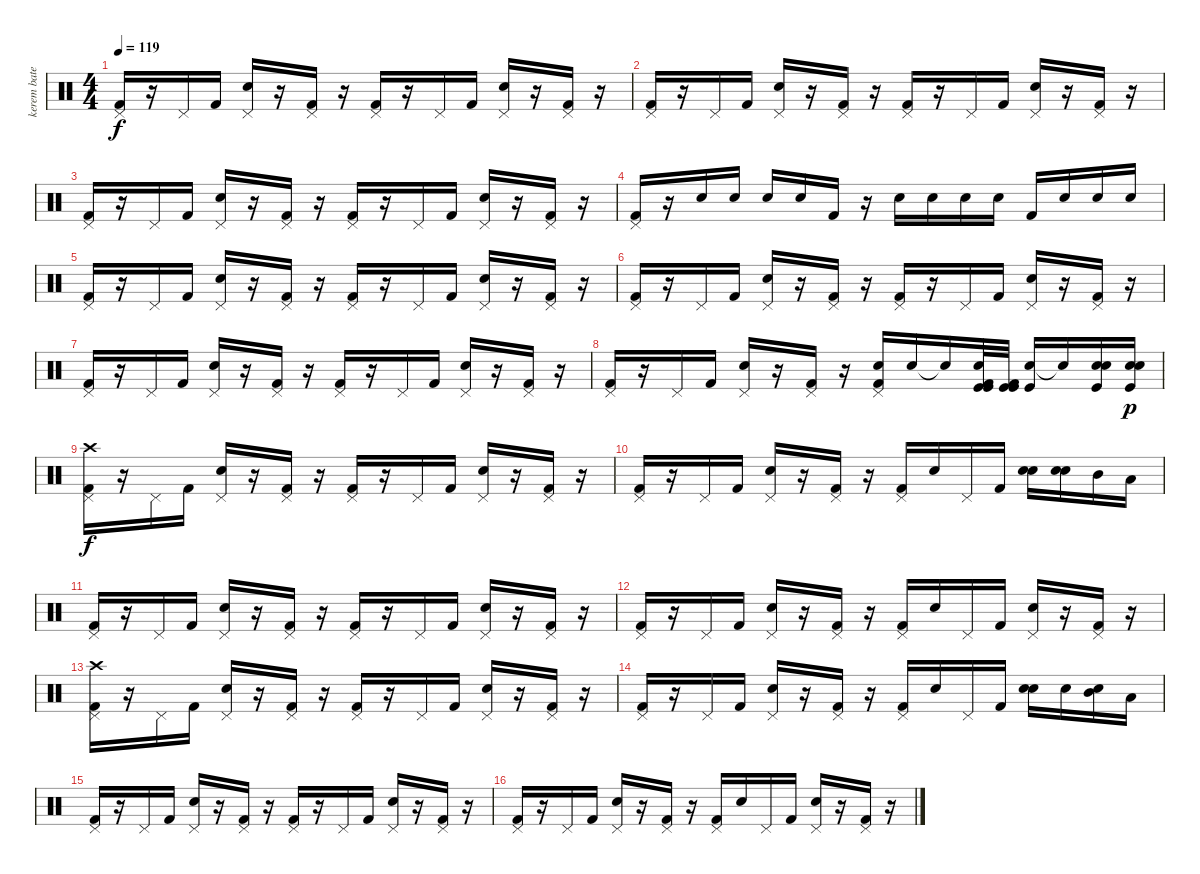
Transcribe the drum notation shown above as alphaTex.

\track ("kerem bateri" "kerem bate") {instrument percussion}
\staff {score}
\articulation defaults
\ts (4 4)
\tempo 119
\clef neutral
\ks c
("Kick (hit) 2" "Pedal Hi-Hat (hit)").16{dy f} r.16 "Pedal Hi-Hat (hit)".16 "Kick (hit) 2".16 ("Electric Snare (hit)" "Pedal Hi-Hat (hit)").16 r.16 ("Kick (hit) 2" "Pedal Hi-Hat (hit)").16 r.16 ("Kick (hit) 2" "Pedal Hi-Hat (hit)").16 r.16 "Pedal Hi-Hat (hit)".16 "Kick (hit) 2".16 ("Electric Snare (hit)" "Pedal Hi-Hat (hit)").16 r.16 ("Kick (hit) 2" "Pedal Hi-Hat (hit)").16 r.16 |
("Kick (hit) 2" "Pedal Hi-Hat (hit)").16 r.16 "Pedal Hi-Hat (hit)".16 "Kick (hit) 2".16 ("Electric Snare (hit)" "Pedal Hi-Hat (hit)").16 r.16 ("Kick (hit) 2" "Pedal Hi-Hat (hit)").16 r.16 ("Kick (hit) 2" "Pedal Hi-Hat (hit)").16 r.16 "Pedal Hi-Hat (hit)".16 "Kick (hit) 2".16 ("Electric Snare (hit)" "Pedal Hi-Hat (hit)").16 r.16 ("Kick (hit) 2" "Pedal Hi-Hat (hit)").16 r.16 |
("Kick (hit) 2" "Pedal Hi-Hat (hit)").16 r.16 "Pedal Hi-Hat (hit)".16 "Kick (hit) 2".16 ("Electric Snare (hit)" "Pedal Hi-Hat (hit)").16 r.16 ("Kick (hit) 2" "Pedal Hi-Hat (hit)").16 r.16 ("Kick (hit) 2" "Pedal Hi-Hat (hit)").16 r.16 "Pedal Hi-Hat (hit)".16 "Kick (hit) 2".16 ("Electric Snare (hit)" "Pedal Hi-Hat (hit)").16 r.16 ("Kick (hit) 2" "Pedal Hi-Hat (hit)").16 r.16 |
("Kick (hit) 2" "Pedal Hi-Hat (hit)").16 r.16 "Electric Snare (hit)".16 "Electric Snare (hit)".16 "Electric Snare (hit)".16 "Electric Snare (hit)".16 "Kick (hit) 2".16 r.16 "Electric Snare (hit)".16 "Electric Snare (hit)".16 "Electric Snare (hit)".16 "Electric Snare (hit)".16 "Kick (hit) 2".16 "Electric Snare (hit)".16 "Electric Snare (hit)".16 "Electric Snare (hit)".16 |
("Kick (hit) 2" "Pedal Hi-Hat (hit)").16 r.16 "Pedal Hi-Hat (hit)".16 "Kick (hit) 2".16 ("Electric Snare (hit)" "Pedal Hi-Hat (hit)").16 r.16 ("Kick (hit) 2" "Pedal Hi-Hat (hit)").16 r.16 ("Kick (hit) 2" "Pedal Hi-Hat (hit)").16 r.16 "Pedal Hi-Hat (hit)".16 "Kick (hit) 2".16 ("Electric Snare (hit)" "Pedal Hi-Hat (hit)").16 r.16 ("Kick (hit) 2" "Pedal Hi-Hat (hit)").16 r.16 |
("Kick (hit) 2" "Pedal Hi-Hat (hit)").16 r.16 "Pedal Hi-Hat (hit)".16 "Kick (hit) 2".16 ("Electric Snare (hit)" "Pedal Hi-Hat (hit)").16 r.16 ("Kick (hit) 2" "Pedal Hi-Hat (hit)").16 r.16 ("Kick (hit) 2" "Pedal Hi-Hat (hit)").16 r.16 "Pedal Hi-Hat (hit)".16 "Kick (hit) 2".16 ("Electric Snare (hit)" "Pedal Hi-Hat (hit)").16 r.16 ("Kick (hit) 2" "Pedal Hi-Hat (hit)").16 r.16 |
("Kick (hit) 2" "Pedal Hi-Hat (hit)").16 r.16 "Pedal Hi-Hat (hit)".16 "Kick (hit) 2".16 ("Electric Snare (hit)" "Pedal Hi-Hat (hit)").16 r.16 ("Kick (hit) 2" "Pedal Hi-Hat (hit)").16 r.16 ("Kick (hit) 2" "Pedal Hi-Hat (hit)").16 r.16 "Pedal Hi-Hat (hit)".16 "Kick (hit) 2".16 ("Electric Snare (hit)" "Pedal Hi-Hat (hit)").16 r.16 ("Kick (hit) 2" "Pedal Hi-Hat (hit)").16 r.16 |
("Kick (hit) 2" "Pedal Hi-Hat (hit)").16 r.16 "Pedal Hi-Hat (hit)".16 "Kick (hit) 2".16 ("Electric Snare (hit)" "Pedal Hi-Hat (hit)").16 r.16 ("Kick (hit) 2" "Pedal Hi-Hat (hit)").16 r.16 ("Snare (hit) 2" "Kick (hit) 2" "Pedal Hi-Hat (hit)").16 "Electric Snare (hit)".16 "Snare (hit)"{t}.16 ("Snare (hit) 2" "Kick (hit) 2" "Kick (hit)" "Kick (hit)").32 ("Kick (hit) 2" "Kick (hit)" "Kick (hit)").32 ("Electric Snare (hit)" "Kick (hit)").16 "Snare (hit)"{t}.16 ("Snare (hit) 2" "Electric Snare (hit)" "Kick (hit)").16 ("Snare (hit) 2" "Electric Snare (hit)" "Kick (hit)").16{dy p} |
("Crash high (hit)" "Kick (hit) 2" "Pedal Hi-Hat (hit)").16{dy f} r.16 "Pedal Hi-Hat (hit)".16 "Kick (hit) 2".16 ("Electric Snare (hit)" "Pedal Hi-Hat (hit)").16 r.16 ("Kick (hit) 2" "Pedal Hi-Hat (hit)").16 r.16 ("Kick (hit) 2" "Pedal Hi-Hat (hit)").16 r.16 "Pedal Hi-Hat (hit)".16 "Kick (hit) 2".16 ("Electric Snare (hit)" "Pedal Hi-Hat (hit)").16 r.16 ("Kick (hit) 2" "Pedal Hi-Hat (hit)").16 r.16 |
("Kick (hit) 2" "Pedal Hi-Hat (hit)").16 r.16 "Pedal Hi-Hat (hit)".16 "Kick (hit) 2".16 ("Electric Snare (hit)" "Pedal Hi-Hat (hit)").16 r.16 ("Kick (hit) 2" "Pedal Hi-Hat (hit)").16 r.16 ("Kick (hit) 2" "Pedal Hi-Hat (hit)").16 "Electric Snare (hit)".16 "Pedal Hi-Hat (hit)".16 "Kick (hit) 2".16 ("Snare (hit) 2" "Electric Snare (hit)").16 ("Snare (hit) 2" "Electric Snare (hit)").16 "Mid Tom (hit)".16 "Low Tom (hit)".16 |
("Kick (hit) 2" "Pedal Hi-Hat (hit)").16 r.16 "Pedal Hi-Hat (hit)".16 "Kick (hit) 2".16 ("Electric Snare (hit)" "Pedal Hi-Hat (hit)").16 r.16 ("Kick (hit) 2" "Pedal Hi-Hat (hit)").16 r.16 ("Kick (hit) 2" "Pedal Hi-Hat (hit)").16 r.16 "Pedal Hi-Hat (hit)".16 "Kick (hit) 2".16 ("Electric Snare (hit)" "Pedal Hi-Hat (hit)").16 r.16 ("Kick (hit) 2" "Pedal Hi-Hat (hit)").16 r.16 |
("Kick (hit) 2" "Pedal Hi-Hat (hit)").16 r.16 "Pedal Hi-Hat (hit)".16 "Kick (hit) 2".16 ("Electric Snare (hit)" "Pedal Hi-Hat (hit)").16 r.16 ("Kick (hit) 2" "Pedal Hi-Hat (hit)").16 r.16 ("Kick (hit) 2" "Pedal Hi-Hat (hit)").16 "Electric Snare (hit)".16 "Pedal Hi-Hat (hit)".16 "Kick (hit) 2".16 ("Electric Snare (hit)" "Pedal Hi-Hat (hit)").16 r.16 ("Kick (hit) 2" "Pedal Hi-Hat (hit)").16 r.16 |
("Crash high (hit)" "Kick (hit) 2" "Pedal Hi-Hat (hit)").16 r.16 "Pedal Hi-Hat (hit)".16 "Kick (hit) 2".16 ("Electric Snare (hit)" "Pedal Hi-Hat (hit)").16 r.16 ("Kick (hit) 2" "Pedal Hi-Hat (hit)").16 r.16 ("Kick (hit) 2" "Pedal Hi-Hat (hit)").16 r.16 "Pedal Hi-Hat (hit)".16 "Kick (hit) 2".16 ("Electric Snare (hit)" "Pedal Hi-Hat (hit)").16 r.16 ("Kick (hit) 2" "Pedal Hi-Hat (hit)").16 r.16 |
("Kick (hit) 2" "Pedal Hi-Hat (hit)").16 r.16 "Pedal Hi-Hat (hit)".16 "Kick (hit) 2".16 ("Electric Snare (hit)" "Pedal Hi-Hat (hit)").16 r.16 ("Kick (hit) 2" "Pedal Hi-Hat (hit)").16 r.16 ("Kick (hit) 2" "Pedal Hi-Hat (hit)").16 "Electric Snare (hit)".16 "Pedal Hi-Hat (hit)".16 "Kick (hit) 2".16 ("Snare (hit) 2" "Electric Snare (hit)").16 "Electric Snare (hit)".16 ("Snare (hit) 2" "Mid Tom (hit)").16 "Low Tom (hit)".16 |
("Kick (hit) 2" "Pedal Hi-Hat (hit)").16 r.16 "Pedal Hi-Hat (hit)".16 "Kick (hit) 2".16 ("Electric Snare (hit)" "Pedal Hi-Hat (hit)").16 r.16 ("Kick (hit) 2" "Pedal Hi-Hat (hit)").16 r.16 ("Kick (hit) 2" "Pedal Hi-Hat (hit)").16 r.16 "Pedal Hi-Hat (hit)".16 "Kick (hit) 2".16 ("Electric Snare (hit)" "Pedal Hi-Hat (hit)").16 r.16 ("Kick (hit) 2" "Pedal Hi-Hat (hit)").16 r.16 |
("Kick (hit) 2" "Pedal Hi-Hat (hit)").16 r.16 "Pedal Hi-Hat (hit)".16 "Kick (hit) 2".16 ("Electric Snare (hit)" "Pedal Hi-Hat (hit)").16 r.16 ("Kick (hit) 2" "Pedal Hi-Hat (hit)").16 r.16 ("Kick (hit) 2" "Pedal Hi-Hat (hit)").16 "Electric Snare (hit)".16 "Pedal Hi-Hat (hit)".16 "Kick (hit) 2".16 ("Electric Snare (hit)" "Pedal Hi-Hat (hit)").16 r.16 ("Kick (hit) 2" "Pedal Hi-Hat (hit)").16 r.16
